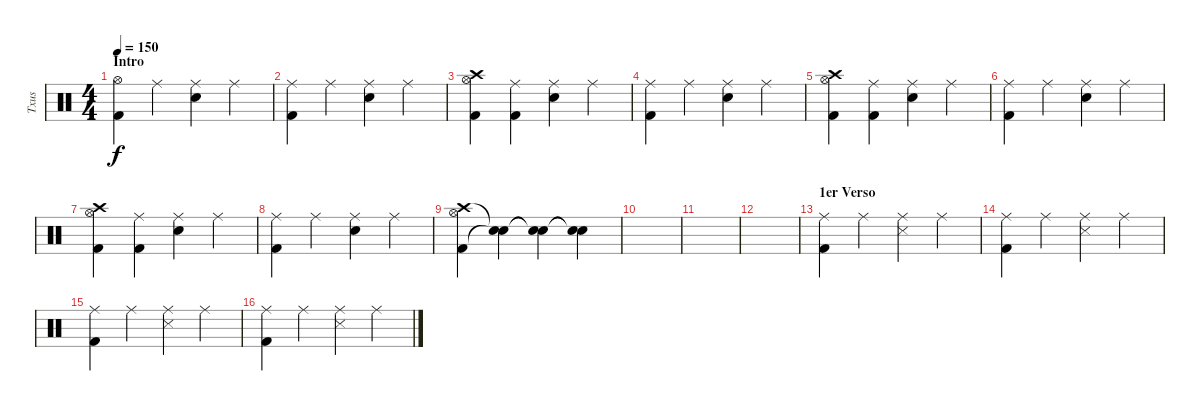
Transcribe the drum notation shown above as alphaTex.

\track ("Txus" "Txus") {instrument percussion}
\staff {score}
\articulation defaults
\ts (4 4)
\section ("" "Intro")
\tempo 150
\clef neutral
\ks c
("Kick (hit) 2" "Hi-Hat (open)").4{dy f} "Ride (middle)".4 ("Snare (hit) 2" "Ride (middle)").4 "Ride (middle)".4 |
("Ride (middle)" "Kick (hit) 2").4 "Ride (middle)".4 ("Snare (hit) 2" "Ride (middle)").4 "Ride (middle)".4 |
("Crash high (hit)" "Kick (hit) 2" "Hi-Hat (open)").4 ("Ride (middle)" "Kick (hit) 2").4 ("Snare (hit) 2" "Ride (middle)").4 "Ride (middle)".4 |
("Kick (hit) 2" "Ride (middle)").4 "Ride (middle)".4 ("Snare (hit) 2" "Ride (middle)").4 "Ride (middle)".4 |
("Crash high (hit)" "Kick (hit) 2" "Hi-Hat (open)").4 ("Ride (middle)" "Kick (hit) 2").4 ("Snare (hit) 2" "Ride (middle)").4 "Ride (middle)".4 |
("Kick (hit) 2" "Ride (middle)").4 "Ride (middle)".4 ("Snare (hit) 2" "Ride (middle)").4 "Ride (middle)".4 |
("Crash high (hit)" "Kick (hit) 2" "Hi-Hat (open)").4 ("Ride (middle)" "Kick (hit) 2").4 ("Snare (hit) 2" "Ride (middle)").4 "Ride (middle)".4 |
("Kick (hit) 2" "Ride (middle)").4 "Ride (middle)".4 ("Snare (hit) 2" "Ride (middle)").4 "Ride (middle)".4 |
("Crash high (hit)" "Kick (hit) 2" "Hi-Hat (open)").4 ("Snare (hit)"{t} "Snare (hit)"{t}).4 ("Snare (hit)"{t} "Snare (hit)"{t}).4 ("Snare (hit)"{t} "Snare (hit)"{t}).4 |
|
|
|
\section ("" "1er Verso")
("Kick (hit) 2" "Ride (middle)").4 "Ride (middle)".4 ("Snare (side stick) 3" "Ride (middle)").4 "Ride (middle)".4 |
("Ride (middle)" "Kick (hit) 2").4 "Ride (middle)".4 ("Snare (side stick) 3" "Ride (middle)").4 "Ride (middle)".4 |
("Ride (middle)" "Kick (hit) 2").4 "Ride (middle)".4 ("Snare (side stick) 3" "Ride (middle)").4 "Ride (middle)".4 |
("Kick (hit) 2" "Ride (middle)").4 "Ride (middle)".4 ("Snare (side stick) 3" "Ride (middle)").4 "Ride (middle)".4
